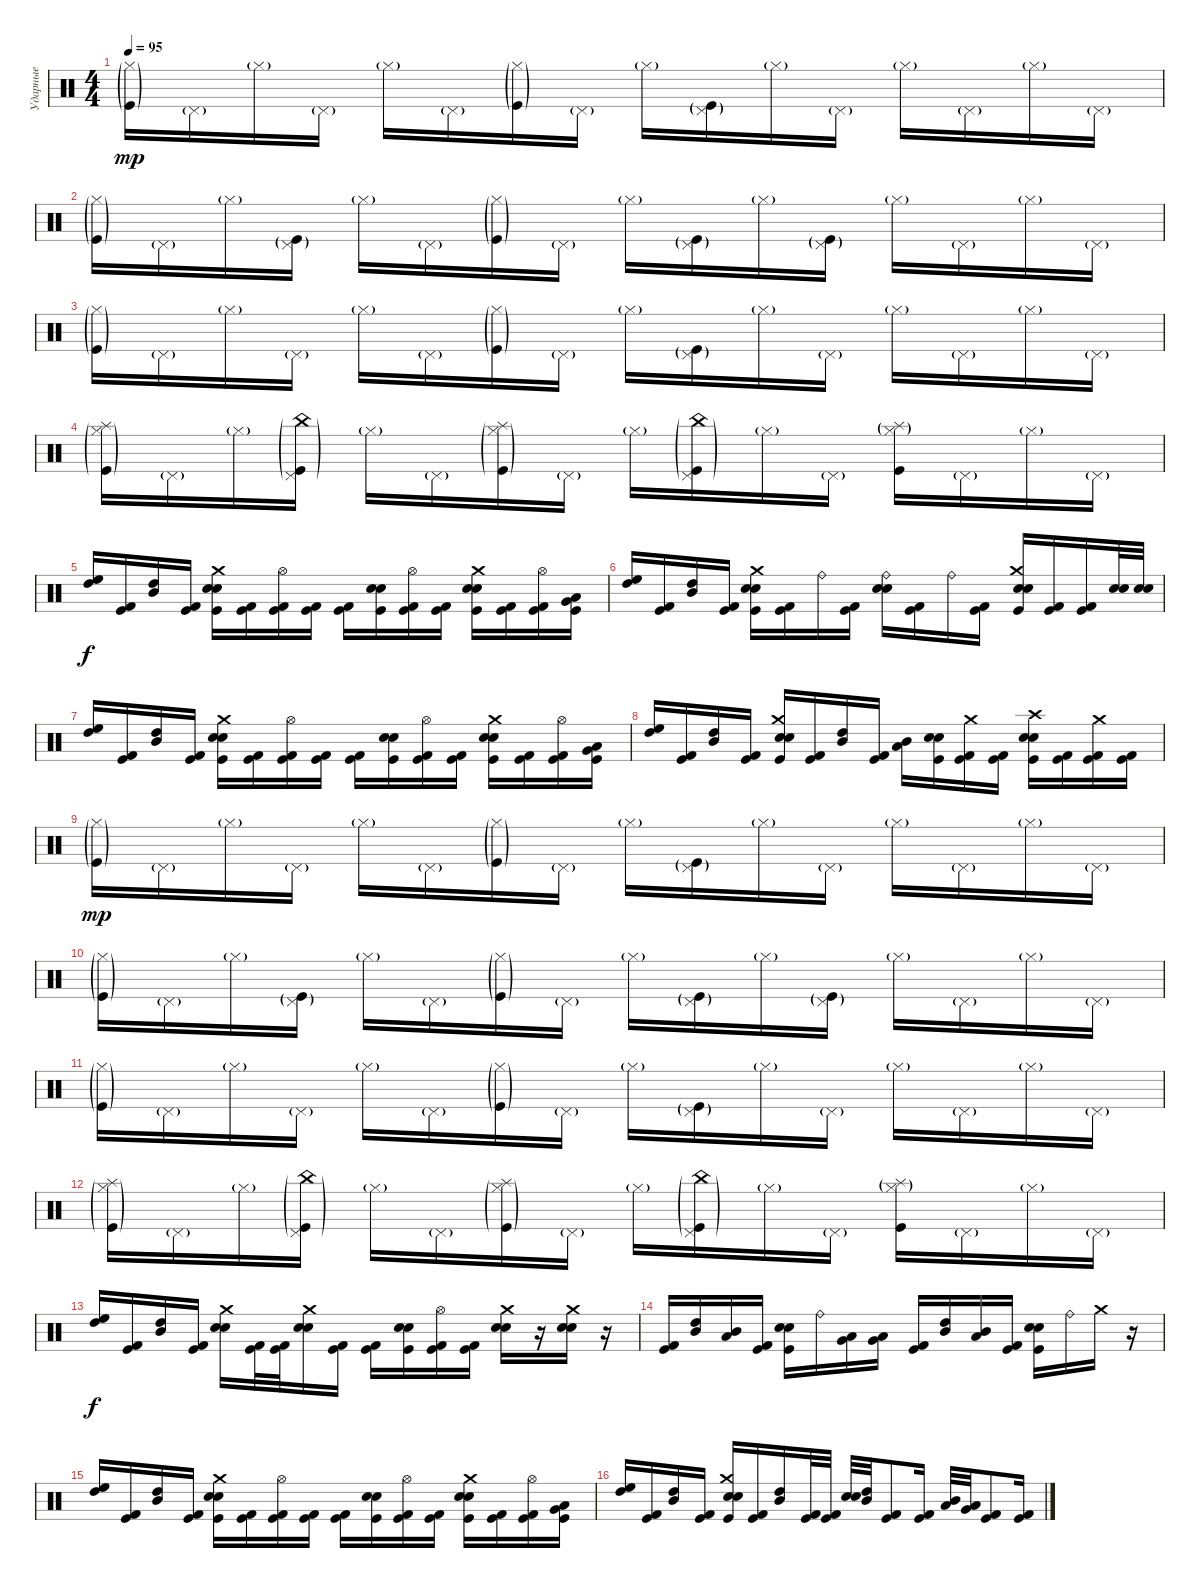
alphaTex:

\track ("Ударные" "Ударные") {instrument percussion}
\staff {score}
\articulation defaults
\ts (4 4)
\tempo 95
\clef neutral
\ks c
("Hi-Hat (closed)"{g} "Kick (hit)"{g}).16{dy mp} "Pedal Hi-Hat (hit)"{g}.16 "Hi-Hat (closed)"{g}.16 "Pedal Hi-Hat (hit)"{g}.16 "Hi-Hat (closed)"{g}.16 "Pedal Hi-Hat (hit)"{g}.16 ("Hi-Hat (closed)"{g} "Kick (hit)"{g}).16 "Pedal Hi-Hat (hit)"{g}.16 "Hi-Hat (closed)"{g}.16 ("Pedal Hi-Hat (hit)"{g} "Kick (hit)"{g}).16 "Hi-Hat (closed)"{g}.16 "Pedal Hi-Hat (hit)"{g}.16 "Hi-Hat (closed)"{g}.16 "Pedal Hi-Hat (hit)"{g}.16 "Hi-Hat (closed)"{g}.16 "Pedal Hi-Hat (hit)"{g}.16 |
("Hi-Hat (closed)"{g} "Kick (hit)"{g}).16 "Pedal Hi-Hat (hit)"{g}.16 "Hi-Hat (closed)"{g}.16 ("Pedal Hi-Hat (hit)"{g} "Kick (hit)"{g}).16 "Hi-Hat (closed)"{g}.16 "Pedal Hi-Hat (hit)"{g}.16 ("Hi-Hat (closed)"{g} "Kick (hit)"{g}).16 "Pedal Hi-Hat (hit)"{g}.16 "Hi-Hat (closed)"{g}.16 ("Pedal Hi-Hat (hit)"{g} "Kick (hit)"{g}).16 "Hi-Hat (closed)"{g}.16 ("Pedal Hi-Hat (hit)"{g} "Kick (hit)"{g}).16 "Hi-Hat (closed)"{g}.16 "Pedal Hi-Hat (hit)"{g}.16 "Hi-Hat (closed)"{g}.16 "Pedal Hi-Hat (hit)"{g}.16 |
("Hi-Hat (closed)"{g} "Kick (hit)"{g}).16 "Pedal Hi-Hat (hit)"{g}.16 "Hi-Hat (closed)"{g}.16 "Pedal Hi-Hat (hit)"{g}.16 "Hi-Hat (closed)"{g}.16 "Pedal Hi-Hat (hit)"{g}.16 ("Hi-Hat (closed)"{g} "Kick (hit)"{g}).16 "Pedal Hi-Hat (hit)"{g}.16 "Hi-Hat (closed)"{g}.16 ("Pedal Hi-Hat (hit)"{g} "Kick (hit)"{g}).16 "Hi-Hat (closed)"{g}.16 "Pedal Hi-Hat (hit)"{g}.16 "Hi-Hat (closed)"{g}.16 "Pedal Hi-Hat (hit)"{g}.16 "Hi-Hat (closed)"{g}.16 "Pedal Hi-Hat (hit)"{g}.16 |
("Hi-Hat (closed)"{g} "Splash (hit)"{g} "Kick (hit)"{g}).16 "Pedal Hi-Hat (hit)"{g}.16 "Hi-Hat (closed)"{g}.16 ("Pedal Hi-Hat (hit)"{g} "China (hit)"{g} "Kick (hit)"{g}).16 "Hi-Hat (closed)"{g}.16 "Pedal Hi-Hat (hit)"{g}.16 ("Hi-Hat (closed)"{g} "Splash (hit)"{g} "Kick (hit)"{g}).16 "Pedal Hi-Hat (hit)"{g}.16 "Hi-Hat (closed)"{g}.16 ("Pedal Hi-Hat (hit)"{g} "China (hit)"{g} "Kick (hit)"{g}).16 "Hi-Hat (closed)"{g}.16 "Pedal Hi-Hat (hit)"{g}.16 ("Hi-Hat (closed)"{g} "Splash (hit)"{g} "Kick (hit)").16 "Pedal Hi-Hat (hit)"{g}.16 "Hi-Hat (closed)"{g}.16 "Pedal Hi-Hat (hit)"{g}.16 |
("High Floor Tom (hit)" "High Tom (hit)").16{dy f} ("Kick (hit) 2" "Kick (hit)").16 ("High Tom (hit)" "Mid Tom (hit)").16 ("Kick (hit) 2" "Kick (hit)").16 ("Crash medium (hit)" "Electric Snare (hit)" "Snare (hit)" "Kick (hit)").16 ("Kick (hit) 2" "Kick (hit)").16 ("Hi-Hat (open)" "Kick (hit) 2" "Kick (hit)").16 ("Kick (hit) 2" "Kick (hit)").16 ("Kick (hit) 2" "Kick (hit)").16 ("Electric Snare (hit)" "Snare (hit)" "Kick (hit)").16 ("Hi-Hat (open)" "Kick (hit) 2" "Kick (hit)").16 ("Kick (hit) 2" "Kick (hit)").16 ("Crash medium (hit)" "Electric Snare (hit)" "Snare (hit)" "Kick (hit)").16 ("Kick (hit) 2" "Kick (hit)").16 ("Hi-Hat (open)" "Kick (hit) 2" "Kick (hit)").16 ("Very Low Tom (hit)" "Low Floor Tom (hit)" "Kick (hit)").16 |
("High Floor Tom (hit)" "High Tom (hit)").16 ("Kick (hit) 2" "Kick (hit)").16 ("High Tom (hit)" "Mid Tom (hit)").16 ("Kick (hit) 2" "Kick (hit)").16 ("Crash medium (hit)" "Electric Snare (hit)" "Snare (hit)" "Kick (hit)").16 ("Kick (hit) 2" "Kick (hit)").16 "Ride (bell)".16 ("Kick (hit) 2" "Kick (hit)").16 ("Ride (bell)" "Electric Snare (hit)" "Snare (hit)").16 ("Kick (hit) 2" "Kick (hit)").16 "Ride (bell)".16 ("Kick (hit) 2" "Kick (hit)").16 ("Crash medium (hit)" "Electric Snare (hit)" "Snare (hit)" "Kick (hit)").16 ("Kick (hit) 2" "Kick (hit)").16 ("Kick (hit) 2" "Kick (hit)").16 ("Snare (hit)" "Electric Snare (hit)").32 ("Snare (hit)" "Electric Snare (hit)").32 |
("High Floor Tom (hit)" "High Tom (hit)").16 ("Kick (hit) 2" "Kick (hit)").16 ("High Tom (hit)" "Mid Tom (hit)").16 ("Kick (hit) 2" "Kick (hit)").16 ("Crash medium (hit)" "Electric Snare (hit)" "Snare (hit)" "Kick (hit)").16 ("Kick (hit) 2" "Kick (hit)").16 ("Hi-Hat (open)" "Kick (hit) 2" "Kick (hit)").16 ("Kick (hit) 2" "Kick (hit)").16 ("Kick (hit) 2" "Kick (hit)").16 ("Electric Snare (hit)" "Snare (hit)" "Kick (hit)").16 ("Hi-Hat (open)" "Kick (hit) 2" "Kick (hit)").16 ("Kick (hit) 2" "Kick (hit)").16 ("Crash medium (hit)" "Electric Snare (hit)" "Snare (hit)" "Kick (hit)").16 ("Kick (hit) 2" "Kick (hit)").16 ("Hi-Hat (open)" "Kick (hit) 2" "Kick (hit)").16 ("Very Low Tom (hit)" "Low Floor Tom (hit)" "Kick (hit)").16 |
("High Floor Tom (hit)" "High Tom (hit)").16 ("Kick (hit) 2" "Kick (hit)").16 ("High Tom (hit)" "Mid Tom (hit)").16 ("Kick (hit) 2" "Kick (hit)").16 ("Crash medium (hit)" "Electric Snare (hit)" "Snare (hit)" "Kick (hit)").16 ("Kick (hit) 2" "Kick (hit)").16 ("High Tom (hit)" "Mid Tom (hit)").16 ("Kick (hit) 2" "Kick (hit)").16 ("Mid Tom (hit)" "Low Tom (hit)").16 ("Electric Snare (hit)" "Snare (hit)" "Kick (hit)").16 ("Crash medium (hit)" "Kick (hit) 2" "Kick (hit)").16 ("Kick (hit) 2" "Kick (hit)").16 ("Crash high (hit)" "Electric Snare (hit)" "Snare (hit)" "Kick (hit)").16 ("Kick (hit) 2" "Kick (hit)").16 ("Crash medium (hit)" "Kick (hit) 2" "Kick (hit)").16 ("Kick (hit) 2" "Kick (hit)").16 |
("Hi-Hat (closed)"{g} "Kick (hit)"{g}).16{dy mp} "Pedal Hi-Hat (hit)"{g}.16 "Hi-Hat (closed)"{g}.16 "Pedal Hi-Hat (hit)"{g}.16 "Hi-Hat (closed)"{g}.16 "Pedal Hi-Hat (hit)"{g}.16 ("Hi-Hat (closed)"{g} "Kick (hit)"{g}).16 "Pedal Hi-Hat (hit)"{g}.16 "Hi-Hat (closed)"{g}.16 ("Pedal Hi-Hat (hit)"{g} "Kick (hit)"{g}).16 "Hi-Hat (closed)"{g}.16 "Pedal Hi-Hat (hit)"{g}.16 "Hi-Hat (closed)"{g}.16 "Pedal Hi-Hat (hit)"{g}.16 "Hi-Hat (closed)"{g}.16 "Pedal Hi-Hat (hit)"{g}.16 |
("Hi-Hat (closed)"{g} "Kick (hit)"{g}).16 "Pedal Hi-Hat (hit)"{g}.16 "Hi-Hat (closed)"{g}.16 ("Pedal Hi-Hat (hit)"{g} "Kick (hit)"{g}).16 "Hi-Hat (closed)"{g}.16 "Pedal Hi-Hat (hit)"{g}.16 ("Hi-Hat (closed)"{g} "Kick (hit)"{g}).16 "Pedal Hi-Hat (hit)"{g}.16 "Hi-Hat (closed)"{g}.16 ("Pedal Hi-Hat (hit)"{g} "Kick (hit)"{g}).16 "Hi-Hat (closed)"{g}.16 ("Pedal Hi-Hat (hit)"{g} "Kick (hit)"{g}).16 "Hi-Hat (closed)"{g}.16 "Pedal Hi-Hat (hit)"{g}.16 "Hi-Hat (closed)"{g}.16 "Pedal Hi-Hat (hit)"{g}.16 |
("Hi-Hat (closed)"{g} "Kick (hit)"{g}).16 "Pedal Hi-Hat (hit)"{g}.16 "Hi-Hat (closed)"{g}.16 "Pedal Hi-Hat (hit)"{g}.16 "Hi-Hat (closed)"{g}.16 "Pedal Hi-Hat (hit)"{g}.16 ("Hi-Hat (closed)"{g} "Kick (hit)"{g}).16 "Pedal Hi-Hat (hit)"{g}.16 "Hi-Hat (closed)"{g}.16 ("Pedal Hi-Hat (hit)"{g} "Kick (hit)"{g}).16 "Hi-Hat (closed)"{g}.16 "Pedal Hi-Hat (hit)"{g}.16 "Hi-Hat (closed)"{g}.16 "Pedal Hi-Hat (hit)"{g}.16 "Hi-Hat (closed)"{g}.16 "Pedal Hi-Hat (hit)"{g}.16 |
("Hi-Hat (closed)"{g} "Splash (hit)"{g} "Kick (hit)"{g}).16 "Pedal Hi-Hat (hit)"{g}.16 "Hi-Hat (closed)"{g}.16 ("Pedal Hi-Hat (hit)"{g} "China (hit)"{g} "Kick (hit)"{g}).16 "Hi-Hat (closed)"{g}.16 "Pedal Hi-Hat (hit)"{g}.16 ("Hi-Hat (closed)"{g} "Splash (hit)"{g} "Kick (hit)"{g}).16 "Pedal Hi-Hat (hit)"{g}.16 "Hi-Hat (closed)"{g}.16 ("Pedal Hi-Hat (hit)"{g} "China (hit)"{g} "Kick (hit)"{g}).16 "Hi-Hat (closed)"{g}.16 "Pedal Hi-Hat (hit)"{g}.16 ("Hi-Hat (closed)"{g} "Splash (hit)"{g} "Kick (hit)").16 "Pedal Hi-Hat (hit)"{g}.16 "Hi-Hat (closed)"{g}.16 "Pedal Hi-Hat (hit)"{g}.16 |
("High Floor Tom (hit)" "High Tom (hit)").16{dy f} ("Kick (hit) 2" "Kick (hit)").16 ("High Tom (hit)" "Mid Tom (hit)").16 ("Kick (hit) 2" "Kick (hit)").16 ("Crash medium (hit)" "Electric Snare (hit)" "Snare (hit)").16 ("Kick (hit) 2" "Kick (hit)").32 ("Kick (hit) 2" "Kick (hit)").32 ("Crash medium (hit)" "Electric Snare (hit)" "Snare (hit)").16 ("Kick (hit) 2" "Kick (hit)").16 ("Kick (hit) 2" "Kick (hit)").16 ("Electric Snare (hit)" "Snare (hit)" "Kick (hit)").16 ("Hi-Hat (open)" "Kick (hit) 2" "Kick (hit)").16 ("Kick (hit) 2" "Kick (hit)").16 ("Crash medium (hit)" "Electric Snare (hit)" "Snare (hit)").16 r.16 ("Crash medium (hit)" "Electric Snare (hit)" "Snare (hit)").16 r.16 |
("Kick (hit) 2" "Kick (hit)").16 ("High Tom (hit)" "Mid Tom (hit)").16 ("Mid Tom (hit)" "Low Tom (hit)").16 ("Kick (hit) 2" "Kick (hit)").16 ("Electric Snare (hit)" "Snare (hit)" "Kick (hit)").16 "Ride (bell)".16 ("Low Tom (hit)" "Very Low Tom (hit)").16 ("Very Low Tom (hit)" "Low Floor Tom (hit)").16 ("Kick (hit) 2" "Kick (hit)").16 ("High Tom (hit)" "Mid Tom (hit)").16 ("Mid Tom (hit)" "Low Tom (hit)").16 ("Kick (hit) 2" "Kick (hit)").16 ("Electric Snare (hit)" "Snare (hit)" "Kick (hit)").16 "Ride (bell)".16 "Crash medium (hit)".16 r.16 |
("High Floor Tom (hit)" "High Tom (hit)").16 ("Kick (hit) 2" "Kick (hit)").16 ("High Tom (hit)" "Mid Tom (hit)").16 ("Kick (hit) 2" "Kick (hit)").16 ("Crash medium (hit)" "Electric Snare (hit)" "Snare (hit)" "Kick (hit)").16 ("Kick (hit) 2" "Kick (hit)").16 ("Hi-Hat (open)" "Kick (hit) 2" "Kick (hit)").16 ("Kick (hit) 2" "Kick (hit)").16 ("Kick (hit) 2" "Kick (hit)").16 ("Electric Snare (hit)" "Snare (hit)" "Kick (hit)").16 ("Hi-Hat (open)" "Kick (hit) 2" "Kick (hit)").16 ("Kick (hit) 2" "Kick (hit)").16 ("Crash medium (hit)" "Electric Snare (hit)" "Snare (hit)" "Kick (hit)").16 ("Kick (hit) 2" "Kick (hit)").16 ("Hi-Hat (open)" "Kick (hit) 2" "Kick (hit)").16 ("Very Low Tom (hit)" "Low Floor Tom (hit)" "Kick (hit)").16 |
("High Floor Tom (hit)" "High Tom (hit)").16 ("Kick (hit) 2" "Kick (hit)").16 ("High Tom (hit)" "Mid Tom (hit)").16 ("Kick (hit) 2" "Kick (hit)").16 ("Crash medium (hit)" "Electric Snare (hit)" "Snare (hit)" "Kick (hit)").16 ("Kick (hit) 2" "Kick (hit)").16 ("High Tom (hit)" "Mid Tom (hit)").16 ("Kick (hit) 2" "Kick (hit)").32 ("Kick (hit) 2" "Kick (hit)").32 ("Electric Snare (hit)" "Snare (hit)").32 ("High Tom (hit)" "Mid Tom (hit)").32 ("Kick (hit) 2" "Kick (hit)").8 ("Kick (hit) 2" "Kick (hit)").16 ("Mid Tom (hit)" "Low Tom (hit)").32 ("Low Tom (hit)" "Very Low Tom (hit)").32 ("Kick (hit) 2" "Kick (hit)").8 ("Kick (hit) 2" "Kick (hit)").16
